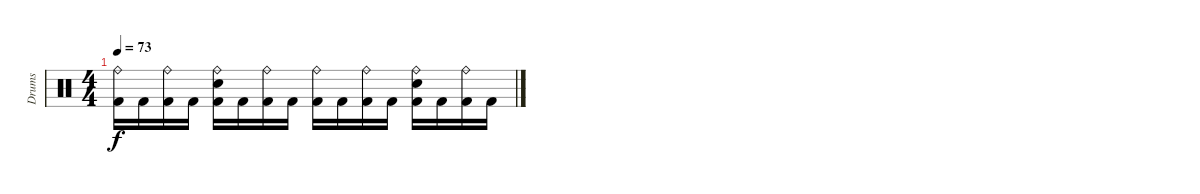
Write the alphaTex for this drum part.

\track ("Drums" "Drums") {instrument percussion}
\staff {score}
\articulation defaults
\ts (4 4)
\tempo 73
\clef neutral
\ks c
("Ride (bell)" "Kick (hit) 2").16{dy f} "Kick (hit) 2".16 ("Ride (bell)" "Kick (hit) 2").16 "Kick (hit) 2".16 ("Ride (bell)" "Electric Snare (hit)" "Kick (hit) 2").16 "Kick (hit) 2".16 ("Ride (bell)" "Kick (hit) 2").16 "Kick (hit) 2".16 ("Ride (bell)" "Kick (hit) 2").16 "Kick (hit) 2".16 ("Ride (bell)" "Kick (hit) 2").16 "Kick (hit) 2".16 ("Ride (bell)" "Electric Snare (hit)" "Kick (hit) 2").16 "Kick (hit) 2".16 ("Ride (bell)" "Kick (hit) 2").16 "Kick (hit) 2".16
